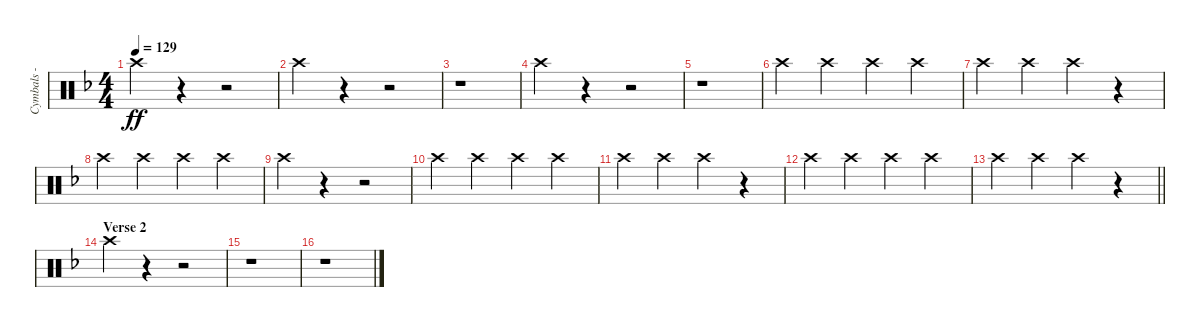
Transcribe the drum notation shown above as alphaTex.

\track ("Cymbals - crash" "Cymbals - ") {instrument percussion}
\staff {score}
\articulation defaults
\ts (4 4)
\tempo 129
\clef neutral
\ks dminor "Crash high (hit)".4{dy ff}
r.4 r.2 |
"Crash high (hit)".4 r.4 r.2 |
r.1 |
"Crash high (hit)".4 r.4 r.2 |
r.1 |
"Crash high (hit)".4{balance 6} "Crash high (hit)".4 "Crash high (hit)".4 "Crash high (hit)".4 |
"Crash high (hit)".4 "Crash high (hit)".4 "Crash high (hit)".4 r.4 |
"Crash high (hit)".4 "Crash high (hit)".4 "Crash high (hit)".4 "Crash high (hit)".4 |
"Crash high (hit)".4 r.4 r.2 |
"Crash high (hit)".4 "Crash high (hit)".4 "Crash high (hit)".4 "Crash high (hit)".4 |
"Crash high (hit)".4 "Crash high (hit)".4 "Crash high (hit)".4{beam merge} r.4 |
"Crash high (hit)".4 "Crash high (hit)".4 "Crash high (hit)".4 "Crash high (hit)".4 |
\barLineRight lightlight "Crash high (hit)".4 "Crash high (hit)".4 "Crash high (hit)".4
r.4 |
\section ("" "Verse 2")
"Crash high (hit)".4 r.4 r.2 |
r.1 |
r.1
